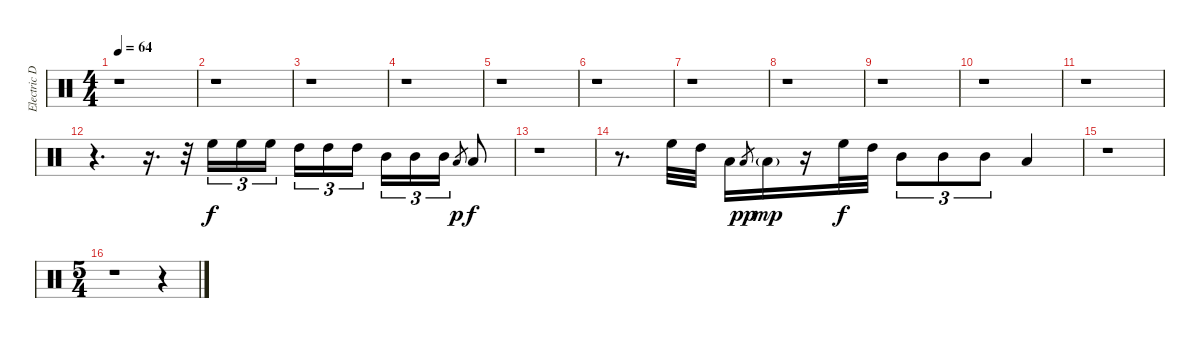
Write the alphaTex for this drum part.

\track ("Electric Drumset" "Electric D") {instrument percussion}
\staff {score}
\articulation defaults
\ts (4 4)
\tempo 64
\clef neutral
\ks c
r.1{dy f} |
r.1 |
r.1 |
r.1 |
r.1 |
r.1 |
r.1 |
r.1 |
r.1 |
r.1 |
r.1 |
r.4{d} r.16{d} r.32{balance 6} "High Floor Tom (hit)".16{tu (3 2) volume 14 balance 11} "High Floor Tom (hit)".16{tu (3 2)} "High Floor Tom (hit)".16{tu (3 2)} "High Tom (hit)".16{tu (3 2)} "High Tom (hit)".16{tu (3 2)} "High Tom (hit)".16{tu (3 2)} "Mid Tom (hit)".16{tu (3 2)} "Mid Tom (hit)".16{tu (3 2)} "Mid Tom (hit)".16{tu (3 2)} "Low Tom (hit)".8{gr dy p} "Low Tom (hit)".8{dy f} |
r.1{volume 12 balance 8} |
r.8{d} "High Floor Tom (hit)".32{volume 14} "High Tom (hit)".32 "Low Tom (hit)".16 "Low Tom (hit)".8{gr dy pp} "Low Tom (hit)"{g}.16{dy mp} r.16 "High Floor Tom (hit)".32{dy f} "High Tom (hit)".32 "Mid Tom (hit)".8{tu (3 2)} "Mid Tom (hit)".8{tu (3 2)} "Mid Tom (hit)".8{tu (3 2)} "Low Tom (hit)".4 |
r.1{volume 12} |
\ts (5 4)
r.1 r.4
